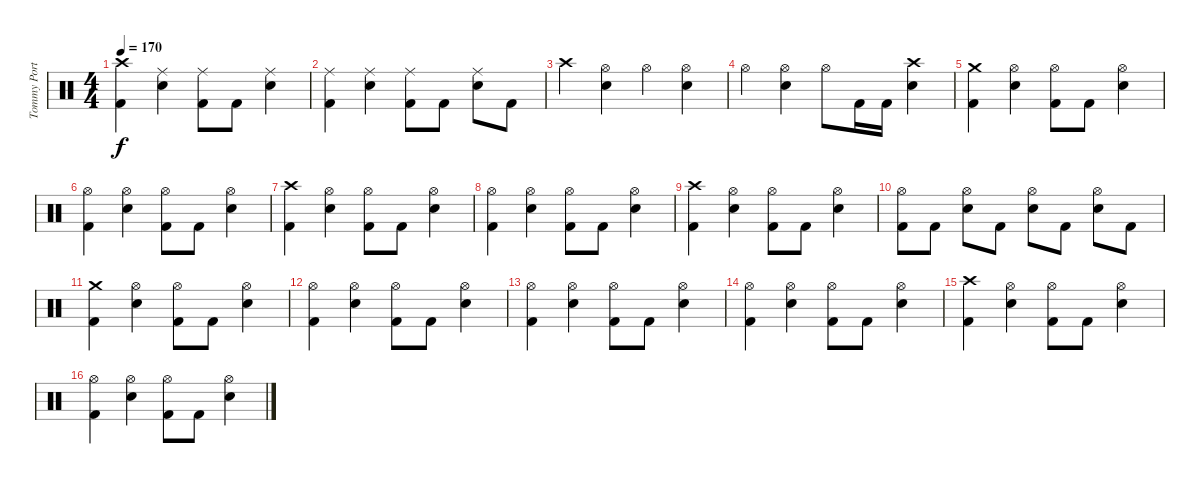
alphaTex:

\track ("Tommy Portino" "Tommy Port") {instrument percussion}
\staff {score}
\articulation defaults
\ts (4 4)
\tempo 170
\clef neutral
\ks c
("Crash high (hit)" "Kick (hit) 2").4{dy f} ("Ride (middle)" "Electric Snare (hit)").4 ("Ride (middle)" "Kick (hit) 2").8 "Kick (hit) 2".8 ("Ride (middle)" "Electric Snare (hit)").4 |
("Ride (middle)" "Kick (hit) 2").4 ("Ride (middle)" "Electric Snare (hit)").4 ("Ride (middle)" "Kick (hit) 2").8 "Kick (hit) 2".8 ("Ride (middle)" "Electric Snare (hit)").8 "Kick (hit) 2".8 |
"Crash high (hit)".4 ("Hi-Hat (open)" "Electric Snare (hit)").4 "Hi-Hat (open)".4 ("Hi-Hat (open)" "Electric Snare (hit)").4 |
"Hi-Hat (open)".4 ("Hi-Hat (open)" "Electric Snare (hit)").4 "Hi-Hat (open)".8 "Kick (hit) 2".16 "Kick (hit) 2".16 ("Crash high (hit)" "Electric Snare (hit)").4 |
("Crash medium (hit)" "Kick (hit) 2").4 ("Hi-Hat (open)" "Electric Snare (hit)").4 ("Hi-Hat (open)" "Kick (hit) 2").8 "Kick (hit) 2".8 ("Hi-Hat (open)" "Electric Snare (hit)").4 |
("Hi-Hat (open)" "Kick (hit) 2").4 ("Hi-Hat (open)" "Electric Snare (hit)").4 ("Hi-Hat (open)" "Kick (hit) 2").8 "Kick (hit) 2".8 ("Hi-Hat (open)" "Electric Snare (hit)").4 |
("Crash high (hit)" "Kick (hit) 2").4 ("Hi-Hat (open)" "Electric Snare (hit)").4 ("Hi-Hat (open)" "Kick (hit) 2").8 "Kick (hit) 2".8 ("Hi-Hat (open)" "Electric Snare (hit)").4 |
("Hi-Hat (open)" "Kick (hit) 2").4 ("Hi-Hat (open)" "Electric Snare (hit)").4 ("Hi-Hat (open)" "Kick (hit) 2").8 "Kick (hit) 2".8 ("Hi-Hat (open)" "Electric Snare (hit)").4 |
("Crash high (hit)" "Kick (hit) 2").4 ("Hi-Hat (open)" "Electric Snare (hit)").4 ("Hi-Hat (open)" "Kick (hit) 2").8 "Kick (hit) 2".8 ("Hi-Hat (open)" "Electric Snare (hit)").4 |
("Hi-Hat (open)" "Kick (hit) 2").8 "Kick (hit) 2".8 ("Hi-Hat (open)" "Electric Snare (hit)").8 "Kick (hit) 2".8 ("Hi-Hat (open)" "Electric Snare (hit)").8 "Kick (hit) 2".8 ("Hi-Hat (open)" "Electric Snare (hit)").8 "Kick (hit) 2".8 |
("Crash medium (hit)" "Kick (hit) 2").4 ("Hi-Hat (open)" "Electric Snare (hit)").4 ("Hi-Hat (open)" "Kick (hit) 2").8 "Kick (hit) 2".8 ("Hi-Hat (open)" "Electric Snare (hit)").4 |
("Hi-Hat (open)" "Kick (hit) 2").4 ("Hi-Hat (open)" "Electric Snare (hit)").4 ("Hi-Hat (open)" "Kick (hit) 2").8 "Kick (hit) 2".8 ("Hi-Hat (open)" "Electric Snare (hit)").4 |
("Hi-Hat (open)" "Kick (hit) 2").4 ("Hi-Hat (open)" "Electric Snare (hit)").4 ("Hi-Hat (open)" "Kick (hit) 2").8 "Kick (hit) 2".8 ("Hi-Hat (open)" "Electric Snare (hit)").4 |
("Hi-Hat (open)" "Kick (hit) 2").4 ("Hi-Hat (open)" "Electric Snare (hit)").4 ("Hi-Hat (open)" "Kick (hit) 2").8 "Kick (hit) 2".8 ("Hi-Hat (open)" "Electric Snare (hit)").4 |
("Crash high (hit)" "Kick (hit) 2").4 ("Hi-Hat (open)" "Electric Snare (hit)").4 ("Hi-Hat (open)" "Kick (hit) 2").8 "Kick (hit) 2".8 ("Hi-Hat (open)" "Electric Snare (hit)").4 |
("Hi-Hat (open)" "Kick (hit) 2").4 ("Hi-Hat (open)" "Electric Snare (hit)").4 ("Hi-Hat (open)" "Kick (hit) 2").8 "Kick (hit) 2".8 ("Hi-Hat (open)" "Electric Snare (hit)").4
